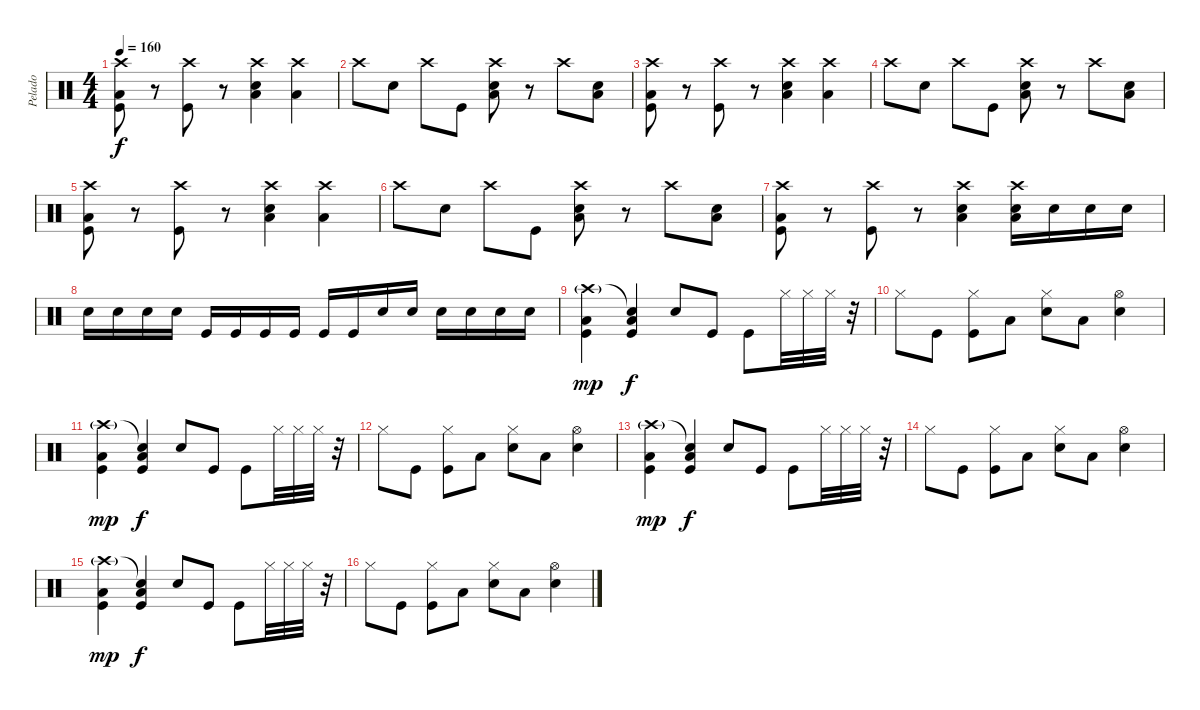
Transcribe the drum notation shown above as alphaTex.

\track ("Pelado" "Pelado") {instrument percussion}
\staff {score}
\articulation defaults
\ts (4 4)
\tempo 160
\clef neutral
\ks c
("Crash high (hit)" "Kick (hit)" "Low Tom (hit)").8{dy f} r.8 ("Crash high (hit)" "Kick (hit)").8 r.8 ("Crash high (hit)" "Snare (hit) 2" "Low Tom (hit)").4 ("Crash high (hit)" "Low Tom (hit)").4 |
"Crash high (hit)".8 "Snare (hit) 2".8 "Crash high (hit)".8 "Kick (hit)".8 ("Crash high (hit)" "Snare (hit) 2" "Low Tom (hit)").8 r.8 "Crash high (hit)".8 ("Snare (hit) 2" "Low Tom (hit)").8 |
("Crash high (hit)" "Kick (hit)" "Low Tom (hit)").8 r.8 ("Crash high (hit)" "Kick (hit)").8 r.8 ("Crash high (hit)" "Snare (hit) 2" "Low Tom (hit)").4 ("Crash high (hit)" "Low Tom (hit)").4 |
"Crash high (hit)".8 "Snare (hit) 2".8 "Crash high (hit)".8 "Kick (hit)".8 ("Crash high (hit)" "Snare (hit) 2" "Low Tom (hit)").8 r.8 "Crash high (hit)".8 ("Snare (hit) 2" "Low Tom (hit)").8 |
("Crash high (hit)" "Kick (hit)" "Low Tom (hit)").8 r.8 ("Crash high (hit)" "Kick (hit)").8 r.8 ("Crash high (hit)" "Snare (hit) 2" "Low Tom (hit)").4 ("Crash high (hit)" "Low Tom (hit)").4 |
"Crash high (hit)".8 "Snare (hit) 2".8 "Crash high (hit)".8 "Kick (hit)".8 ("Crash high (hit)" "Snare (hit) 2" "Low Tom (hit)").8 r.8 "Crash high (hit)".8 ("Snare (hit) 2" "Low Tom (hit)").8 |
("Crash high (hit)" "Kick (hit)" "Low Tom (hit)").8 r.8 ("Crash high (hit)" "Kick (hit)").8 r.8 ("Crash high (hit)" "Snare (hit) 2" "Low Tom (hit)").4 ("Crash high (hit)" "Snare (hit) 2" "Low Tom (hit)").16 "Snare (hit) 2".16 "Snare (hit) 2".16 "Snare (hit) 2".16 |
"Snare (hit) 2".16 "Snare (hit) 2".16 "Snare (hit) 2".16 "Snare (hit) 2".16 "Kick (hit)".16 "Kick (hit)".16 "Kick (hit)".16 "Kick (hit)".16 "Kick (hit)".16 "Kick (hit)".16 "Snare (hit) 2".16 "Snare (hit) 2".16 "Snare (hit) 2".16 "Snare (hit) 2".16 "Snare (hit) 2".16 "Snare (hit) 2".16 |
("Crash high (hit)"{g} "Kick (hit)" "Low Tom (hit)").4{dy mp} ("Snare (hit)"{t} "Kick (hit)" "Low Tom (hit)").4{dy f} "Snare (hit) 2".8 "Kick (hit)".8 "Kick (hit)".8 "Hi-Hat (closed)".32 "Hi-Hat (closed)".32 "Hi-Hat (closed)".32 r.32 |
"Hi-Hat (closed)".8 "Kick (hit)".8 ("Hi-Hat (closed)" "Kick (hit)").8 "Low Tom (hit)".8 ("Hi-Hat (closed)" "Snare (hit) 2").8 "Low Tom (hit)".8 ("Hi-Hat (open)" "Snare (hit) 2").4 |
("Crash high (hit)"{g} "Kick (hit)" "Low Tom (hit)").4{dy mp} ("Snare (hit)"{t} "Kick (hit)" "Low Tom (hit)").4{dy f} "Snare (hit) 2".8 "Kick (hit)".8 "Kick (hit)".8 "Hi-Hat (closed)".32 "Hi-Hat (closed)".32 "Hi-Hat (closed)".32 r.32 |
"Hi-Hat (closed)".8 "Kick (hit)".8 ("Hi-Hat (closed)" "Kick (hit)").8 "Low Tom (hit)".8 ("Hi-Hat (closed)" "Snare (hit) 2").8 "Low Tom (hit)".8 ("Hi-Hat (open)" "Snare (hit) 2").4 |
("Crash high (hit)"{g} "Kick (hit)" "Low Tom (hit)").4{dy mp} ("Snare (hit)"{t} "Kick (hit)" "Low Tom (hit)").4{dy f} "Snare (hit) 2".8 "Kick (hit)".8 "Kick (hit)".8 "Hi-Hat (closed)".32 "Hi-Hat (closed)".32 "Hi-Hat (closed)".32 r.32 |
"Hi-Hat (closed)".8 "Kick (hit)".8 ("Hi-Hat (closed)" "Kick (hit)").8 "Low Tom (hit)".8 ("Hi-Hat (closed)" "Snare (hit) 2").8 "Low Tom (hit)".8 ("Hi-Hat (open)" "Snare (hit) 2").4 |
("Crash high (hit)"{g} "Kick (hit)" "Low Tom (hit)").4{dy mp} ("Snare (hit)"{t} "Kick (hit)" "Low Tom (hit)").4{dy f} "Snare (hit) 2".8 "Kick (hit)".8 "Kick (hit)".8 "Hi-Hat (closed)".32 "Hi-Hat (closed)".32 "Hi-Hat (closed)".32 r.32 |
"Hi-Hat (closed)".8 "Kick (hit)".8 ("Hi-Hat (closed)" "Kick (hit)").8 "Low Tom (hit)".8 ("Hi-Hat (closed)" "Snare (hit) 2").8 "Low Tom (hit)".8 ("Hi-Hat (open)" "Snare (hit) 2").4
